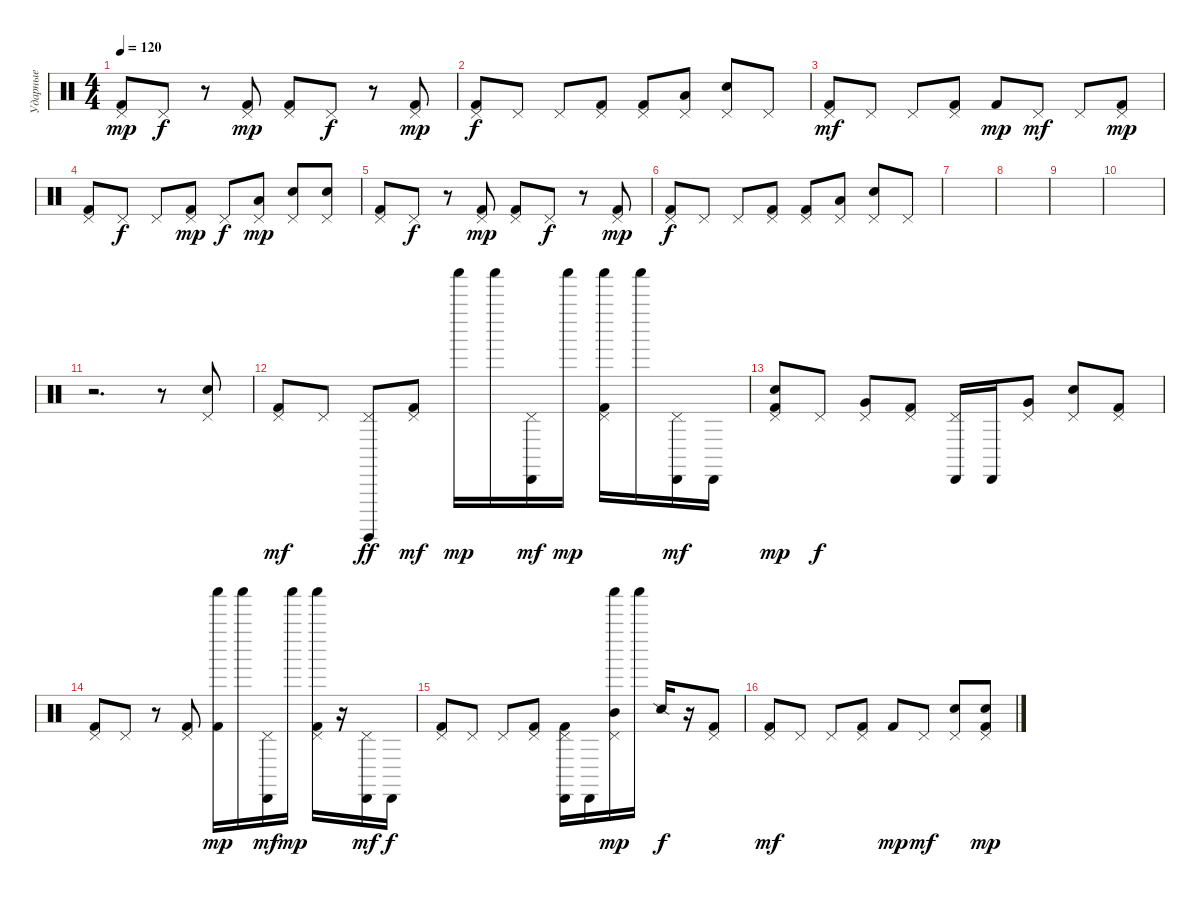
\track ("Ударные" "Ударные") {instrument percussion}
\staff {score}
\articulation defaults
\ts (4 4)
\tempo 120
\clef neutral
\ks c
("Pedal Hi-Hat (hit)" "Kick (hit) 2").8{dy mp} "Pedal Hi-Hat (hit)".8{dy f} r.8 ("Pedal Hi-Hat (hit)" "Kick (hit) 2").8{dy mp} ("Pedal Hi-Hat (hit)" "Kick (hit) 2").8 "Pedal Hi-Hat (hit)".8{dy f} r.8 ("Pedal Hi-Hat (hit)" "Kick (hit) 2").8{dy mp} |
("Pedal Hi-Hat (hit)" "Kick (hit) 2").8{dy f} "Pedal Hi-Hat (hit)".8 "Pedal Hi-Hat (hit)".8 ("Pedal Hi-Hat (hit)" "Kick (hit) 2").8 ("Pedal Hi-Hat (hit)" "Kick (hit) 2").8 ("Pedal Hi-Hat (hit)" "Low Tom (hit)").8 ("Pedal Hi-Hat (hit)" "Electric Snare (hit)").8 "Pedal Hi-Hat (hit)".8 |
("Pedal Hi-Hat (hit)" "Kick (hit) 2").8{dy mf} "Pedal Hi-Hat (hit)".8 "Pedal Hi-Hat (hit)".8 ("Pedal Hi-Hat (hit)" "Kick (hit) 2").8 "Kick (hit) 2".8{dy mp} "Pedal Hi-Hat (hit)".8{dy mf} "Pedal Hi-Hat (hit)".8 ("Pedal Hi-Hat (hit)" "Kick (hit) 2").8{dy mp} |
("Pedal Hi-Hat (hit)" "Kick (hit) 2").8 "Pedal Hi-Hat (hit)".8{dy f} "Pedal Hi-Hat (hit)".8 ("Pedal Hi-Hat (hit)" "Kick (hit) 2").8{dy mp} "Pedal Hi-Hat (hit)".8{dy f} ("Pedal Hi-Hat (hit)" "Low Floor Tom (hit)").8{dy mp} ("Pedal Hi-Hat (hit)" "Snare (hit) 2").8 ("Pedal Hi-Hat (hit)" "Snare (hit) 2").8 |
("Pedal Hi-Hat (hit)" "Kick (hit) 2").8 "Pedal Hi-Hat (hit)".8{dy f} r.8 ("Pedal Hi-Hat (hit)" "Kick (hit) 2").8{dy mp} ("Pedal Hi-Hat (hit)" "Kick (hit) 2").8 "Pedal Hi-Hat (hit)".8{dy f} r.8 ("Pedal Hi-Hat (hit)" "Kick (hit) 2").8{dy mp} |
("Pedal Hi-Hat (hit)" "Kick (hit) 2").8{dy f} "Pedal Hi-Hat (hit)".8 "Pedal Hi-Hat (hit)".8 ("Pedal Hi-Hat (hit)" "Kick (hit) 2").8 ("Pedal Hi-Hat (hit)" "Kick (hit) 2").8 ("Pedal Hi-Hat (hit)" "Low Tom (hit)").8 ("Pedal Hi-Hat (hit)" "Electric Snare (hit)").8 "Pedal Hi-Hat (hit)".8 |
|
|
|
|
r.2{d} r.8 ("Pedal Hi-Hat (hit)" "Electric Snare (hit)").8 |
("Pedal Hi-Hat (hit)" "Kick (hit) 2").8{dy mf} "Pedal Hi-Hat (hit)".8 ("Pedal Hi-Hat (hit)" "Surdo (hit)").8{dy ff} ("Pedal Hi-Hat (hit)" "Kick (hit) 2").8{dy mf} "Shaker (hit)".16{dy mp} "Shaker (hit)".16 ("Pedal Hi-Hat (hit)" "Cabasa (hit)").16{dy mf} "Shaker (hit)".16{dy mp} ("Pedal Hi-Hat (hit)" "Shaker (hit)" "Kick (hit) 2").16 "Shaker (hit)".16 ("Pedal Hi-Hat (hit)" "Cabasa (hit)").16{dy mf} "Cabasa (hit)".16 |
("Pedal Hi-Hat (hit)" "Snare (hit) 2" "Kick (hit) 2").8{dy mp} "Pedal Hi-Hat (hit)".8{dy f} ("Pedal Hi-Hat (hit)" "Very Low Tom (hit)").8 ("Pedal Hi-Hat (hit)" "Kick (hit) 2").8 ("Pedal Hi-Hat (hit)" "Cabasa (hit)").16 "Cabasa (hit)".16 ("Pedal Hi-Hat (hit)" "Very Low Tom (hit)").8 ("Pedal Hi-Hat (hit)" "Electric Snare (hit)").8 ("Pedal Hi-Hat (hit)" "Kick (hit) 2").8 |
("Pedal Hi-Hat (hit)" "Kick (hit) 2").8 "Pedal Hi-Hat (hit)".8 r.8 ("Pedal Hi-Hat (hit)" "Kick (hit) 2").8 ("Shaker (hit)" "Kick (hit) 2").16{dy mp} "Shaker (hit)".16 ("Pedal Hi-Hat (hit)" "Cabasa (hit)").16{dy mf} "Shaker (hit)".16{dy mp} ("Pedal Hi-Hat (hit)" "Shaker (hit)" "Kick (hit) 2").16 r.16 ("Pedal Hi-Hat (hit)" "Cabasa (hit)").16{dy mf} "Cabasa (hit)".16{dy f} |
("Pedal Hi-Hat (hit)" "Kick (hit) 2").8 "Pedal Hi-Hat (hit)".8 "Pedal Hi-Hat (hit)".8 ("Pedal Hi-Hat (hit)" "Kick (hit) 2").8 ("Pedal Hi-Hat (hit)" "Cabasa (hit)" "Kick (hit) 2").16 "Cabasa (hit)".16 ("Pedal Hi-Hat (hit)" "Shaker (hit)" "Mid Tom (hit)").16{dy mp} "Shaker (hit)".16 "Snare (side stick) 2".16{dy f} r.16 ("Pedal Hi-Hat (hit)" "Kick (hit) 2").8 |
("Pedal Hi-Hat (hit)" "Kick (hit) 2").8{dy mf} "Pedal Hi-Hat (hit)".8 "Pedal Hi-Hat (hit)".8 ("Pedal Hi-Hat (hit)" "Kick (hit) 2").8 "Kick (hit) 2".8{dy mp} "Pedal Hi-Hat (hit)".8{dy mf} ("Pedal Hi-Hat (hit)" "Snare (hit) 2").8 ("Pedal Hi-Hat (hit)" "Electric Snare (hit)" "Kick (hit) 2").8{dy mp}
